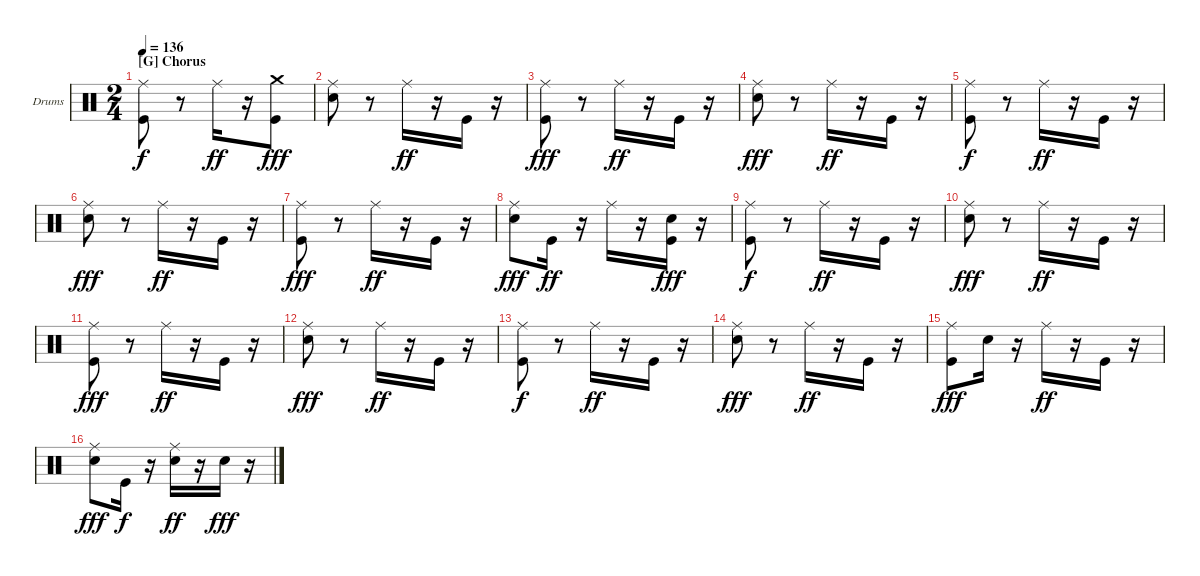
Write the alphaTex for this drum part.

\bracketExtendMode groupsimilarinstruments
\firstSystemTrackNameOrientation horizontal
\otherSystemsTrackNameOrientation horizontal
\track ("Drumkit" "Drums") {solo instrument percussion}
\staff {score}
\articulation defaults
\ts (2 4)
\section ("G" "Chorus")
\tempo 136
\clef neutral
\ks c
("Ride (middle)" "Kick (hit)").8{dy f} r.8 "Ride (middle)".16{dy ff} r.16 ("Crash medium (hit)" "Kick (hit)").8{dy fff} |
("Ride (middle)" "Snare (hit) 2").8 r.8 "Ride (middle)".16{dy ff} r.16 "Kick (hit)".16 r.16 |
("Ride (middle)" "Kick (hit)").8{dy fff} r.8 "Ride (middle)".16{dy ff} r.16 "Kick (hit)".16 r.16 |
("Ride (middle)" "Snare (hit) 2").8{dy fff} r.8 "Ride (middle)".16{dy ff} r.16 "Kick (hit)".16 r.16 |
("Ride (middle)" "Kick (hit)").8{dy f} r.8 "Ride (middle)".16{dy ff} r.16 "Kick (hit)".16 r.16 |
("Ride (middle)" "Snare (hit) 2").8{dy fff} r.8 "Ride (middle)".16{dy ff} r.16 "Kick (hit)".16 r.16 |
("Ride (middle)" "Kick (hit)").8{dy fff} r.8 "Ride (middle)".16{dy ff} r.16 "Kick (hit)".16 r.16 |
("Ride (middle)" "Snare (hit) 2").8{dy fff} "Kick (hit)".16{dy ff} r.16 "Ride (middle)".16 r.16 ("Kick (hit)" "Snare (hit) 2").16{dy fff} r.16 |
("Ride (middle)" "Kick (hit)").8{dy f} r.8 "Ride (middle)".16{dy ff} r.16 "Kick (hit)".16 r.16 |
("Ride (middle)" "Snare (hit) 2").8{dy fff} r.8 "Ride (middle)".16{dy ff} r.16 "Kick (hit)".16 r.16 |
("Ride (middle)" "Kick (hit)").8{dy fff} r.8 "Ride (middle)".16{dy ff} r.16 "Kick (hit)".16 r.16 |
("Ride (middle)" "Snare (hit) 2").8{dy fff} r.8 "Ride (middle)".16{dy ff} r.16 "Kick (hit)".16 r.16 |
("Ride (middle)" "Kick (hit)").8{dy f} r.8 "Ride (middle)".16{dy ff} r.16 "Kick (hit)".16 r.16 |
("Ride (middle)" "Snare (hit) 2").8{dy fff} r.8 "Ride (middle)".16{dy ff} r.16 "Kick (hit)".16 r.16 |
("Ride (middle)" "Kick (hit)").8{dy fff} "Snare (hit) 2".16 r.16 "Ride (middle)".16{dy ff} r.16 "Kick (hit)".16 r.16 |
("Ride (middle)" "Snare (hit) 2").8{dy fff} "Kick (hit)".16{dy f} r.16 ("Ride (middle)" "Snare (hit) 2").16{dy ff} r.16 "Snare (hit) 2".16{dy fff} r.16
